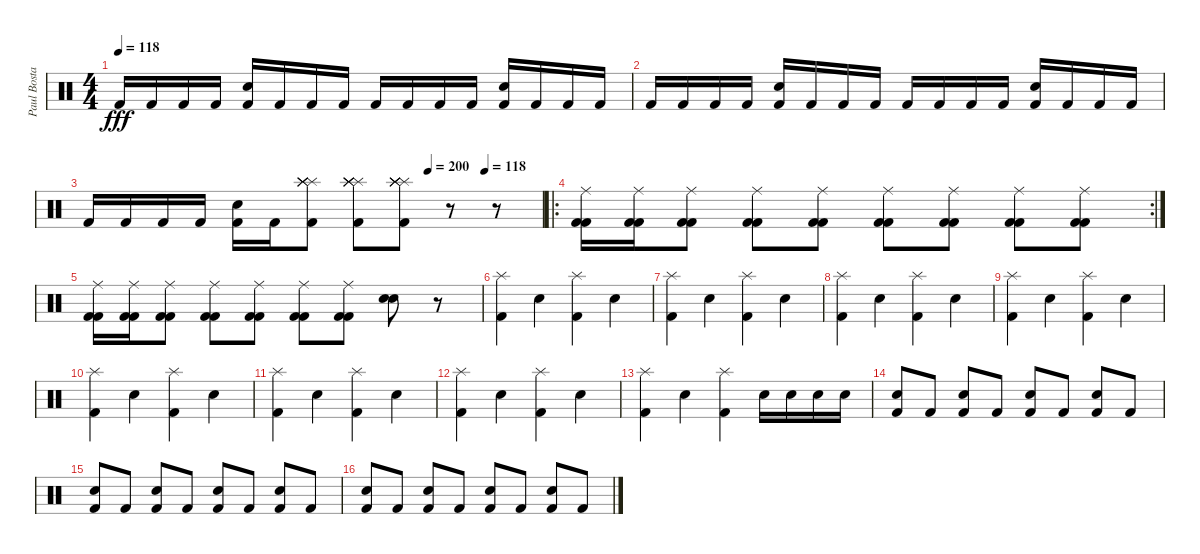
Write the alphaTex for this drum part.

\track ("Paul Bostaph" "Paul Bosta") {instrument percussion}
\staff {score}
\articulation defaults
\ts (4 4)
\tempo 118
\clef neutral
\ks c "Kick (hit) 2".16{dy fff} "Kick (hit) 2".16 "Kick (hit) 2".16 "Kick (hit) 2".16
("Snare (hit) 2" "Kick (hit) 2").16 "Kick (hit) 2".16 "Kick (hit) 2".16 "Kick (hit) 2".16 "Kick (hit) 2".16 "Kick (hit) 2".16 "Kick (hit) 2".16 "Kick (hit) 2".16 ("Snare (hit) 2" "Kick (hit) 2").16 "Kick (hit) 2".16 "Kick (hit) 2".16 "Kick (hit) 2".16 |
"Kick (hit) 2".16 "Kick (hit) 2".16 "Kick (hit) 2".16 "Kick (hit) 2".16 ("Snare (hit) 2" "Kick (hit) 2").16 "Kick (hit) 2".16 "Kick (hit) 2".16 "Kick (hit) 2".16 "Kick (hit) 2".16 "Kick (hit) 2".16 "Kick (hit) 2".16 "Kick (hit) 2".16 ("Snare (hit) 2" "Kick (hit) 2").16 "Kick (hit) 2".16 "Kick (hit) 2".16 "Kick (hit) 2".16 |
\tempo (200 0.75)
\tempo (118 0.875)
"Kick (hit) 2".16 "Kick (hit) 2".16 "Kick (hit) 2".16 "Kick (hit) 2".16 ("Snare (hit) 2" "Kick (hit) 2").16 "Kick (hit) 2".16 ("Splash (hit)" "Splash (hit)" "Splash (hit)" "Splash (hit)" "Splash (hit)" "Kick (hit) 2").8 ("Splash (hit)" "Splash (hit)" "Splash (hit)" "Splash (hit)" "Splash (hit)" "Kick (hit) 2").8 ("Splash (hit)" "Splash (hit)" "Splash (hit)" "Splash (hit)" "Splash (hit)" "Kick (hit) 2").8 r.8 r.8 |
\ro
\rc 2
("Ride (middle)" "Kick (hit) 2" "Kick (hit) 2").16 ("Ride (middle)" "Kick (hit) 2" "Kick (hit) 2").16 ("Ride (middle)" "Kick (hit) 2" "Kick (hit) 2").8 ("Ride (middle)" "Kick (hit) 2" "Kick (hit) 2").8 ("Ride (middle)" "Kick (hit) 2" "Kick (hit) 2").8 ("Ride (middle)" "Kick (hit) 2" "Kick (hit) 2").8 ("Ride (middle)" "Kick (hit) 2" "Kick (hit) 2").8 ("Ride (middle)" "Kick (hit) 2" "Kick (hit) 2").8 ("Ride (middle)" "Kick (hit) 2" "Kick (hit) 2").8 |
("Ride (middle)" "Kick (hit) 2" "Kick (hit) 2").16 ("Ride (middle)" "Kick (hit) 2" "Kick (hit) 2").16 ("Ride (middle)" "Kick (hit) 2" "Kick (hit) 2").8 ("Ride (middle)" "Kick (hit) 2" "Kick (hit) 2").8 ("Ride (middle)" "Kick (hit) 2" "Kick (hit) 2").8 ("Ride (middle)" "Kick (hit) 2" "Kick (hit) 2").8 ("Ride (middle)" "Kick (hit) 2" "Kick (hit) 2").8 ("Snare (hit) 2" "Snare (hit) 2").8 r.8 |
("Splash (hit)" "Kick (hit) 2").4 "Snare (hit) 2".4 ("Splash (hit)" "Kick (hit) 2").4 "Snare (hit) 2".4 |
("Splash (hit)" "Kick (hit) 2").4 "Snare (hit) 2".4 ("Splash (hit)" "Kick (hit) 2").4 "Snare (hit) 2".4 |
("Splash (hit)" "Kick (hit) 2").4 "Snare (hit) 2".4 ("Splash (hit)" "Kick (hit) 2").4 "Snare (hit) 2".4 |
("Splash (hit)" "Kick (hit) 2").4 "Snare (hit) 2".4 ("Splash (hit)" "Kick (hit) 2").4 "Snare (hit) 2".4 |
("Splash (hit)" "Kick (hit) 2").4 "Snare (hit) 2".4 ("Splash (hit)" "Kick (hit) 2").4 "Snare (hit) 2".4 |
("Splash (hit)" "Kick (hit) 2").4 "Snare (hit) 2".4 ("Splash (hit)" "Kick (hit) 2").4 "Snare (hit) 2".4 |
("Splash (hit)" "Kick (hit) 2").4 "Snare (hit) 2".4 ("Splash (hit)" "Kick (hit) 2").4 "Snare (hit) 2".4 |
("Splash (hit)" "Kick (hit) 2").4 "Snare (hit) 2".4 ("Splash (hit)" "Kick (hit) 2").4 "Snare (hit) 2".16 "Snare (hit) 2".16 "Snare (hit) 2".16 "Snare (hit) 2".16 |
("Snare (hit) 2" "Kick (hit) 2").8 "Kick (hit) 2".8 ("Snare (hit) 2" "Kick (hit) 2").8 "Kick (hit) 2".8 ("Snare (hit) 2" "Kick (hit) 2").8 "Kick (hit) 2".8 ("Snare (hit) 2" "Kick (hit) 2").8 "Kick (hit) 2".8 |
("Snare (hit) 2" "Kick (hit) 2").8 "Kick (hit) 2".8 ("Snare (hit) 2" "Kick (hit) 2").8 "Kick (hit) 2".8 ("Snare (hit) 2" "Kick (hit) 2").8 "Kick (hit) 2".8 ("Snare (hit) 2" "Kick (hit) 2").8 "Kick (hit) 2".8 |
("Snare (hit) 2" "Kick (hit) 2").8 "Kick (hit) 2".8 ("Snare (hit) 2" "Kick (hit) 2").8 "Kick (hit) 2".8 ("Snare (hit) 2" "Kick (hit) 2").8 "Kick (hit) 2".8 ("Snare (hit) 2" "Kick (hit) 2").8 "Kick (hit) 2".8
